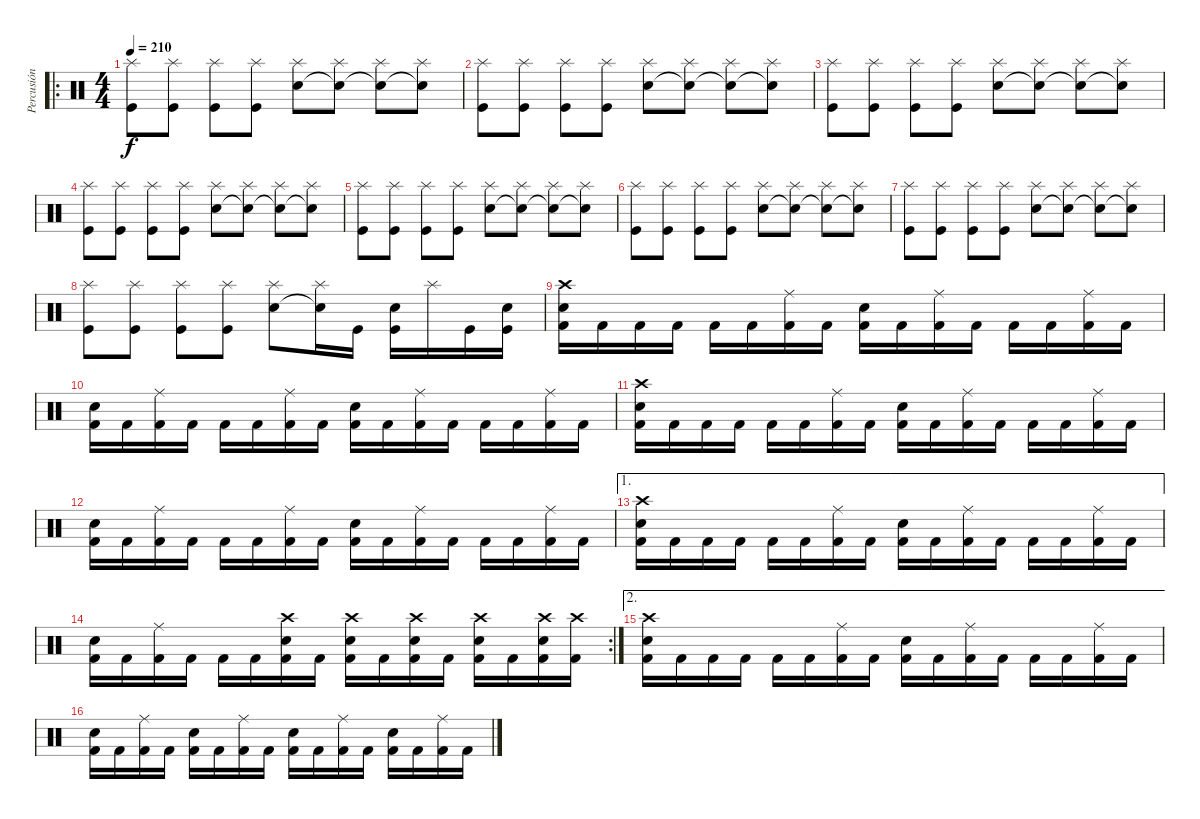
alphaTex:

\track ("Percusión" "Percusión") {instrument percussion}
\staff {score}
\articulation defaults
\ro
\ts (4 4)
\tempo 210
\clef neutral
\ks c
("Splash (hit)" "Kick (hit)").8{dy f} ("Splash (hit)" "Kick (hit)").8 ("Splash (hit)" "Kick (hit)").8 ("Splash (hit)" "Kick (hit)").8 ("Snare (hit) 2" "Splash (hit)").8 ("Snare (hit)"{t} "Splash (hit)").8 ("Snare (hit)"{t} "Splash (hit)").8 ("Snare (hit)"{t} "Splash (hit)").8 |
("Splash (hit)" "Kick (hit)").8 ("Splash (hit)" "Kick (hit)").8 ("Splash (hit)" "Kick (hit)").8 ("Splash (hit)" "Kick (hit)").8 ("Snare (hit) 2" "Splash (hit)").8 ("Snare (hit)"{t} "Splash (hit)").8 ("Snare (hit)"{t} "Splash (hit)").8 ("Snare (hit)"{t} "Splash (hit)").8 |
("Splash (hit)" "Kick (hit)").8 ("Splash (hit)" "Kick (hit)").8 ("Splash (hit)" "Kick (hit)").8 ("Splash (hit)" "Kick (hit)").8 ("Snare (hit) 2" "Splash (hit)").8 ("Snare (hit)"{t} "Splash (hit)").8 ("Snare (hit)"{t} "Splash (hit)").8 ("Snare (hit)"{t} "Splash (hit)").8 |
("Splash (hit)" "Kick (hit)").8 ("Splash (hit)" "Kick (hit)").8 ("Splash (hit)" "Kick (hit)").8 ("Splash (hit)" "Kick (hit)").8 ("Snare (hit) 2" "Splash (hit)").8 ("Snare (hit)"{t} "Splash (hit)").8 ("Snare (hit)"{t} "Splash (hit)").8 ("Snare (hit)"{t} "Splash (hit)").8 |
("Splash (hit)" "Kick (hit)").8 ("Splash (hit)" "Kick (hit)").8 ("Splash (hit)" "Kick (hit)").8 ("Splash (hit)" "Kick (hit)").8 ("Snare (hit) 2" "Splash (hit)").8 ("Snare (hit)"{t} "Splash (hit)").8 ("Snare (hit)"{t} "Splash (hit)").8 ("Snare (hit)"{t} "Splash (hit)").8 |
("Splash (hit)" "Kick (hit)").8 ("Splash (hit)" "Kick (hit)").8 ("Splash (hit)" "Kick (hit)").8 ("Splash (hit)" "Kick (hit)").8 ("Snare (hit) 2" "Splash (hit)").8 ("Snare (hit)"{t} "Splash (hit)").8 ("Snare (hit)"{t} "Splash (hit)").8 ("Snare (hit)"{t} "Splash (hit)").8 |
("Splash (hit)" "Kick (hit)").8 ("Splash (hit)" "Kick (hit)").8 ("Splash (hit)" "Kick (hit)").8 ("Splash (hit)" "Kick (hit)").8 ("Snare (hit) 2" "Splash (hit)").8 ("Snare (hit)"{t} "Splash (hit)").8 ("Snare (hit)"{t} "Splash (hit)").8 ("Snare (hit)"{t} "Splash (hit)").8 |
("Splash (hit)" "Kick (hit)").8 ("Splash (hit)" "Kick (hit)").8 ("Splash (hit)" "Kick (hit)").8 ("Splash (hit)" "Kick (hit)").8 ("Snare (hit) 2" "Splash (hit)").8 ("Snare (hit)"{t} "Splash (hit)").16 "Kick (hit)".16 ("Kick (hit)" "Snare (hit) 2").16 "Splash (hit)".16 "Kick (hit)".16 ("Kick (hit)" "Snare (hit) 2").16 |
("Kick (hit) 2" "Snare (hit) 2" "Crash high (hit)").16 "Kick (hit) 2".16 "Kick (hit) 2".16 "Kick (hit) 2".16 "Kick (hit) 2".16 "Kick (hit) 2".16 ("Kick (hit) 2" "Ride (middle)").16 "Kick (hit) 2".16 ("Kick (hit) 2" "Snare (hit) 2").16 "Kick (hit) 2".16 ("Kick (hit) 2" "Ride (middle)").16 "Kick (hit) 2".16 "Kick (hit) 2".16 "Kick (hit) 2".16 ("Kick (hit) 2" "Ride (middle)").16 "Kick (hit) 2".16 |
("Kick (hit) 2" "Snare (hit) 2").16 "Kick (hit) 2".16 ("Kick (hit) 2" "Ride (middle)").16 "Kick (hit) 2".16 "Kick (hit) 2".16 "Kick (hit) 2".16 ("Kick (hit) 2" "Ride (middle)").16 "Kick (hit) 2".16 ("Kick (hit) 2" "Snare (hit) 2").16 "Kick (hit) 2".16 ("Kick (hit) 2" "Ride (middle)").16 "Kick (hit) 2".16 "Kick (hit) 2".16 "Kick (hit) 2".16 ("Kick (hit) 2" "Ride (middle)").16 "Kick (hit) 2".16 |
("Kick (hit) 2" "Snare (hit) 2" "Crash high (hit)").16 "Kick (hit) 2".16 "Kick (hit) 2".16 "Kick (hit) 2".16 "Kick (hit) 2".16 "Kick (hit) 2".16 ("Kick (hit) 2" "Ride (middle)").16 "Kick (hit) 2".16 ("Kick (hit) 2" "Snare (hit) 2").16 "Kick (hit) 2".16 ("Kick (hit) 2" "Ride (middle)").16 "Kick (hit) 2".16 "Kick (hit) 2".16 "Kick (hit) 2".16 ("Kick (hit) 2" "Ride (middle)").16 "Kick (hit) 2".16 |
("Kick (hit) 2" "Snare (hit) 2").16 "Kick (hit) 2".16 ("Kick (hit) 2" "Ride (middle)").16 "Kick (hit) 2".16 "Kick (hit) 2".16 "Kick (hit) 2".16 ("Kick (hit) 2" "Ride (middle)").16 "Kick (hit) 2".16 ("Kick (hit) 2" "Snare (hit) 2").16 "Kick (hit) 2".16 ("Kick (hit) 2" "Ride (middle)").16 "Kick (hit) 2".16 "Kick (hit) 2".16 "Kick (hit) 2".16 ("Kick (hit) 2" "Ride (middle)").16 "Kick (hit) 2".16 |
\ae 1
("Kick (hit) 2" "Snare (hit) 2" "Crash high (hit)").16 "Kick (hit) 2".16 "Kick (hit) 2".16 "Kick (hit) 2".16 "Kick (hit) 2".16 "Kick (hit) 2".16 ("Kick (hit) 2" "Ride (middle)").16 "Kick (hit) 2".16 ("Kick (hit) 2" "Snare (hit) 2").16 "Kick (hit) 2".16 ("Kick (hit) 2" "Ride (middle)").16 "Kick (hit) 2".16 "Kick (hit) 2".16 "Kick (hit) 2".16 ("Kick (hit) 2" "Ride (middle)").16 "Kick (hit) 2".16 |
\rc 2
("Kick (hit) 2" "Snare (hit) 2").16 "Kick (hit) 2".16 ("Kick (hit) 2" "Ride (middle)").16 "Kick (hit) 2".16 "Kick (hit) 2".16 "Kick (hit) 2".16 ("Kick (hit) 2" "Snare (hit) 2" "Crash high (hit)").16 "Kick (hit) 2".16 ("Kick (hit) 2" "Snare (hit) 2" "Crash high (hit)").16 "Kick (hit) 2".16 ("Kick (hit) 2" "Snare (hit) 2" "Crash high (hit)").16 "Kick (hit) 2".16 ("Kick (hit) 2" "Snare (hit) 2" "Crash high (hit)").16 "Kick (hit) 2".16 ("Kick (hit) 2" "Snare (hit) 2" "Crash high (hit)").16 ("Kick (hit) 2" "Crash high (hit)").16 |
\ae 2
("Kick (hit) 2" "Snare (hit) 2" "Crash high (hit)").16 "Kick (hit) 2".16 "Kick (hit) 2".16 "Kick (hit) 2".16 "Kick (hit) 2".16 "Kick (hit) 2".16 ("Kick (hit) 2" "Ride (middle)").16 "Kick (hit) 2".16 ("Kick (hit) 2" "Snare (hit) 2").16 "Kick (hit) 2".16 ("Kick (hit) 2" "Ride (middle)").16 "Kick (hit) 2".16 "Kick (hit) 2".16 "Kick (hit) 2".16 ("Kick (hit) 2" "Ride (middle)").16 "Kick (hit) 2".16 |
("Kick (hit) 2" "Snare (hit) 2").16 "Kick (hit) 2".16 ("Kick (hit) 2" "Ride (middle)").16 "Kick (hit) 2".16 ("Kick (hit) 2" "Snare (hit) 2").16 "Kick (hit) 2".16 ("Kick (hit) 2" "Ride (middle)").16 "Kick (hit) 2".16 ("Kick (hit) 2" "Snare (hit) 2").16 "Kick (hit) 2".16 ("Kick (hit) 2" "Ride (middle)").16 "Kick (hit) 2".16 ("Kick (hit) 2" "Snare (hit) 2").16 "Kick (hit) 2".16 ("Kick (hit) 2" "Ride (middle)").16 "Kick (hit) 2".16
